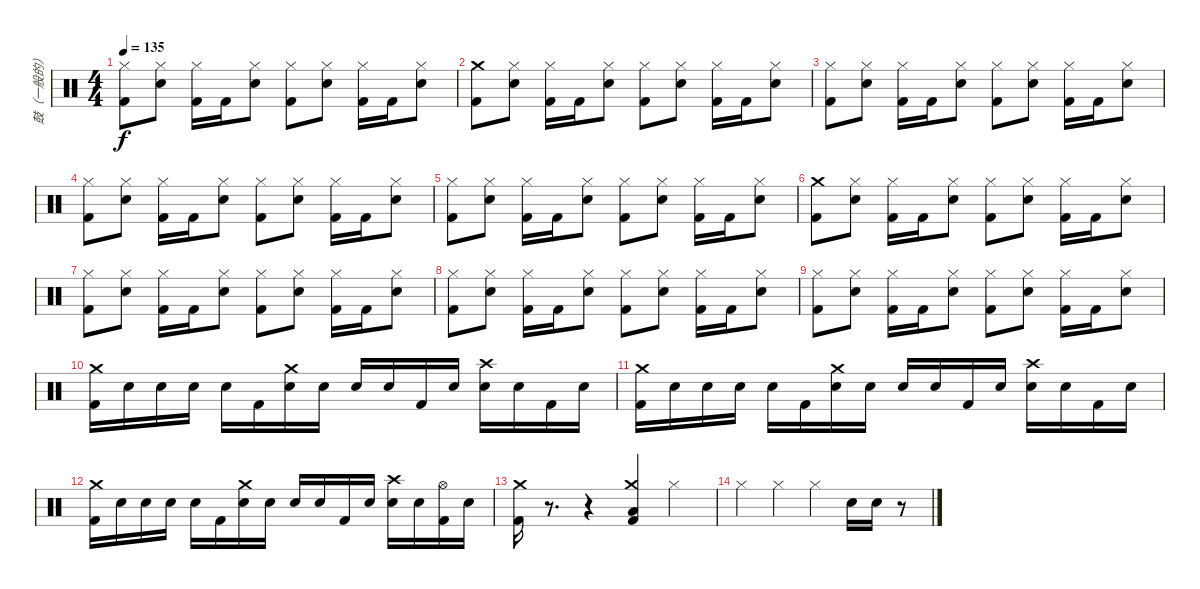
\track ("鼓（一般的）" "鼓（一般的）") {instrument percussion}
\staff {score}
\articulation defaults
\ts (4 4)
\tempo 135
\clef neutral
\ks c
("Hi-Hat (closed)" "Kick (hit) 2").8{dy f} ("Hi-Hat (closed)" "Snare (hit) 2").8 ("Hi-Hat (closed)" "Kick (hit) 2").16 "Kick (hit) 2".16 ("Hi-Hat (closed)" "Snare (hit) 2").8 ("Hi-Hat (closed)" "Kick (hit) 2").8 ("Hi-Hat (closed)" "Snare (hit) 2").8 ("Hi-Hat (closed)" "Kick (hit) 2").16 "Kick (hit) 2".16 ("Hi-Hat (closed)" "Snare (hit) 2").8 |
("Crash medium (hit)" "Kick (hit) 2").8 ("Hi-Hat (closed)" "Snare (hit) 2").8 ("Hi-Hat (closed)" "Kick (hit) 2").16 "Kick (hit) 2".16 ("Hi-Hat (closed)" "Snare (hit) 2").8 ("Hi-Hat (closed)" "Kick (hit) 2").8 ("Hi-Hat (closed)" "Snare (hit) 2").8 ("Hi-Hat (closed)" "Kick (hit) 2").16 "Kick (hit) 2".16 ("Hi-Hat (closed)" "Snare (hit) 2").8 |
("Hi-Hat (closed)" "Kick (hit) 2").8 ("Hi-Hat (closed)" "Snare (hit) 2").8 ("Hi-Hat (closed)" "Kick (hit) 2").16 "Kick (hit) 2".16 ("Hi-Hat (closed)" "Snare (hit) 2").8 ("Hi-Hat (closed)" "Kick (hit) 2").8 ("Hi-Hat (closed)" "Snare (hit) 2").8 ("Hi-Hat (closed)" "Kick (hit) 2").16 "Kick (hit) 2".16 ("Hi-Hat (closed)" "Snare (hit) 2").8 |
("Hi-Hat (closed)" "Kick (hit) 2").8 ("Hi-Hat (closed)" "Snare (hit) 2").8 ("Hi-Hat (closed)" "Kick (hit) 2").16 "Kick (hit) 2".16 ("Hi-Hat (closed)" "Snare (hit) 2").8 ("Hi-Hat (closed)" "Kick (hit) 2").8 ("Hi-Hat (closed)" "Snare (hit) 2").8 ("Hi-Hat (closed)" "Kick (hit) 2").16 "Kick (hit) 2".16 ("Hi-Hat (closed)" "Snare (hit) 2").8 |
("Hi-Hat (closed)" "Kick (hit) 2").8 ("Hi-Hat (closed)" "Snare (hit) 2").8 ("Hi-Hat (closed)" "Kick (hit) 2").16 "Kick (hit) 2".16 ("Hi-Hat (closed)" "Snare (hit) 2").8 ("Hi-Hat (closed)" "Kick (hit) 2").8 ("Hi-Hat (closed)" "Snare (hit) 2").8 ("Hi-Hat (closed)" "Kick (hit) 2").16 "Kick (hit) 2".16 ("Hi-Hat (closed)" "Snare (hit) 2").8 |
("Crash medium (hit)" "Kick (hit) 2").8 ("Hi-Hat (closed)" "Snare (hit) 2").8 ("Hi-Hat (closed)" "Kick (hit) 2").16 "Kick (hit) 2".16 ("Hi-Hat (closed)" "Snare (hit) 2").8 ("Hi-Hat (closed)" "Kick (hit) 2").8 ("Hi-Hat (closed)" "Snare (hit) 2").8 ("Hi-Hat (closed)" "Kick (hit) 2").16 "Kick (hit) 2".16 ("Hi-Hat (closed)" "Snare (hit) 2").8 |
("Hi-Hat (closed)" "Kick (hit) 2").8 ("Hi-Hat (closed)" "Snare (hit) 2").8 ("Hi-Hat (closed)" "Kick (hit) 2").16 "Kick (hit) 2".16 ("Hi-Hat (closed)" "Snare (hit) 2").8 ("Hi-Hat (closed)" "Kick (hit) 2").8 ("Hi-Hat (closed)" "Snare (hit) 2").8 ("Hi-Hat (closed)" "Kick (hit) 2").16 "Kick (hit) 2".16 ("Hi-Hat (closed)" "Snare (hit) 2").8 |
("Hi-Hat (closed)" "Kick (hit) 2").8 ("Hi-Hat (closed)" "Snare (hit) 2").8 ("Hi-Hat (closed)" "Kick (hit) 2").16 "Kick (hit) 2".16 ("Hi-Hat (closed)" "Snare (hit) 2").8 ("Hi-Hat (closed)" "Kick (hit) 2").8 ("Hi-Hat (closed)" "Snare (hit) 2").8 ("Hi-Hat (closed)" "Kick (hit) 2").16 "Kick (hit) 2".16 ("Hi-Hat (closed)" "Snare (hit) 2").8 |
("Hi-Hat (closed)" "Kick (hit) 2").8 ("Hi-Hat (closed)" "Snare (hit) 2").8 ("Hi-Hat (closed)" "Kick (hit) 2").16 "Kick (hit) 2".16 ("Hi-Hat (closed)" "Snare (hit) 2").8 ("Hi-Hat (closed)" "Kick (hit) 2").8 ("Hi-Hat (closed)" "Snare (hit) 2").8 ("Hi-Hat (closed)" "Kick (hit) 2").16 "Kick (hit) 2".16 ("Hi-Hat (closed)" "Snare (hit) 2").8 |
("Crash medium (hit)" "Kick (hit) 2").16 "Snare (hit) 2".16 "Snare (hit) 2".16 "Snare (hit) 2".16 "Snare (hit) 2".16 "Kick (hit) 2".16 ("Crash medium (hit)" "Snare (hit) 2").16 "Snare (hit) 2".16 "Snare (hit) 2".16 "Snare (hit) 2".16 "Kick (hit) 2".16 "Snare (hit) 2".16 ("Crash high (hit)" "Snare (hit) 2").16 "Snare (hit) 2".16 "Kick (hit) 2".16 "Snare (hit) 2".16 |
("Crash medium (hit)" "Kick (hit) 2").16 "Snare (hit) 2".16 "Snare (hit) 2".16 "Snare (hit) 2".16 "Snare (hit) 2".16 "Kick (hit) 2".16 ("Crash medium (hit)" "Snare (hit) 2").16 "Snare (hit) 2".16 "Snare (hit) 2".16 "Snare (hit) 2".16 "Kick (hit) 2".16 "Snare (hit) 2".16 ("Crash high (hit)" "Snare (hit) 2").16 "Snare (hit) 2".16 "Kick (hit) 2".16 "Snare (hit) 2".16 |
("Crash medium (hit)" "Kick (hit) 2").16 "Snare (hit) 2".16 "Snare (hit) 2".16 "Snare (hit) 2".16 "Snare (hit) 2".16 "Kick (hit) 2".16 ("Crash medium (hit)" "Snare (hit) 2").16 "Snare (hit) 2".16 "Snare (hit) 2".16 "Snare (hit) 2".16 "Kick (hit) 2".16 "Snare (hit) 2".16 ("Crash high (hit)" "Snare (hit) 2").16 "Snare (hit) 2".16 ("Hi-Hat (open)" "Kick (hit) 2").16 "Snare (hit) 2".16 |
("Crash medium (hit)" "Kick (hit) 2").16 r.8{d} r.4 ("Crash medium (hit)" "Low Floor Tom (hit)" "Kick (hit) 2").4 "Hi-Hat (closed)".4 |
"Hi-Hat (closed)".4 "Hi-Hat (closed)".4 "Hi-Hat (closed)".4 "Snare (hit) 2".16 "Snare (hit) 2".16 r.8
